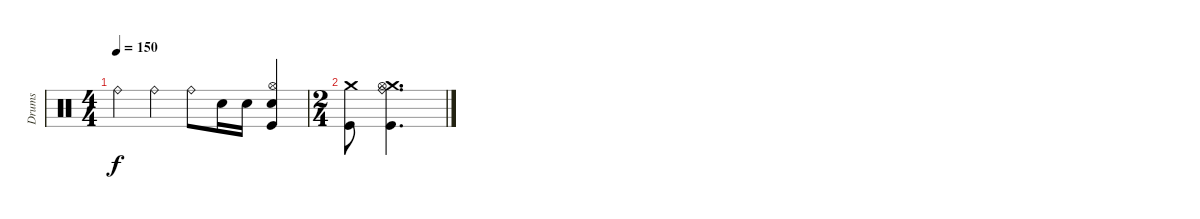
\track ("Drums" "Drums") {instrument percussion}
\staff {score}
\articulation defaults
\ts (4 4)
\tempo 150
\clef neutral
\ks c "Ride (bell)".4{dy f} "Ride (bell)".4 "Ride (bell)".8 "Electric Snare (hit)".16 "Electric Snare (hit)".16
("Hi-Hat (open)" "Electric Snare (hit)" "Kick (hit)").4 |
\ts (2 4)
("Crash medium (hit)" "Kick (hit)").8 ("Crash medium (hit)" "Ride (bell)" "Hi-Hat (open)" "Kick (hit)").4{d volume 1}
